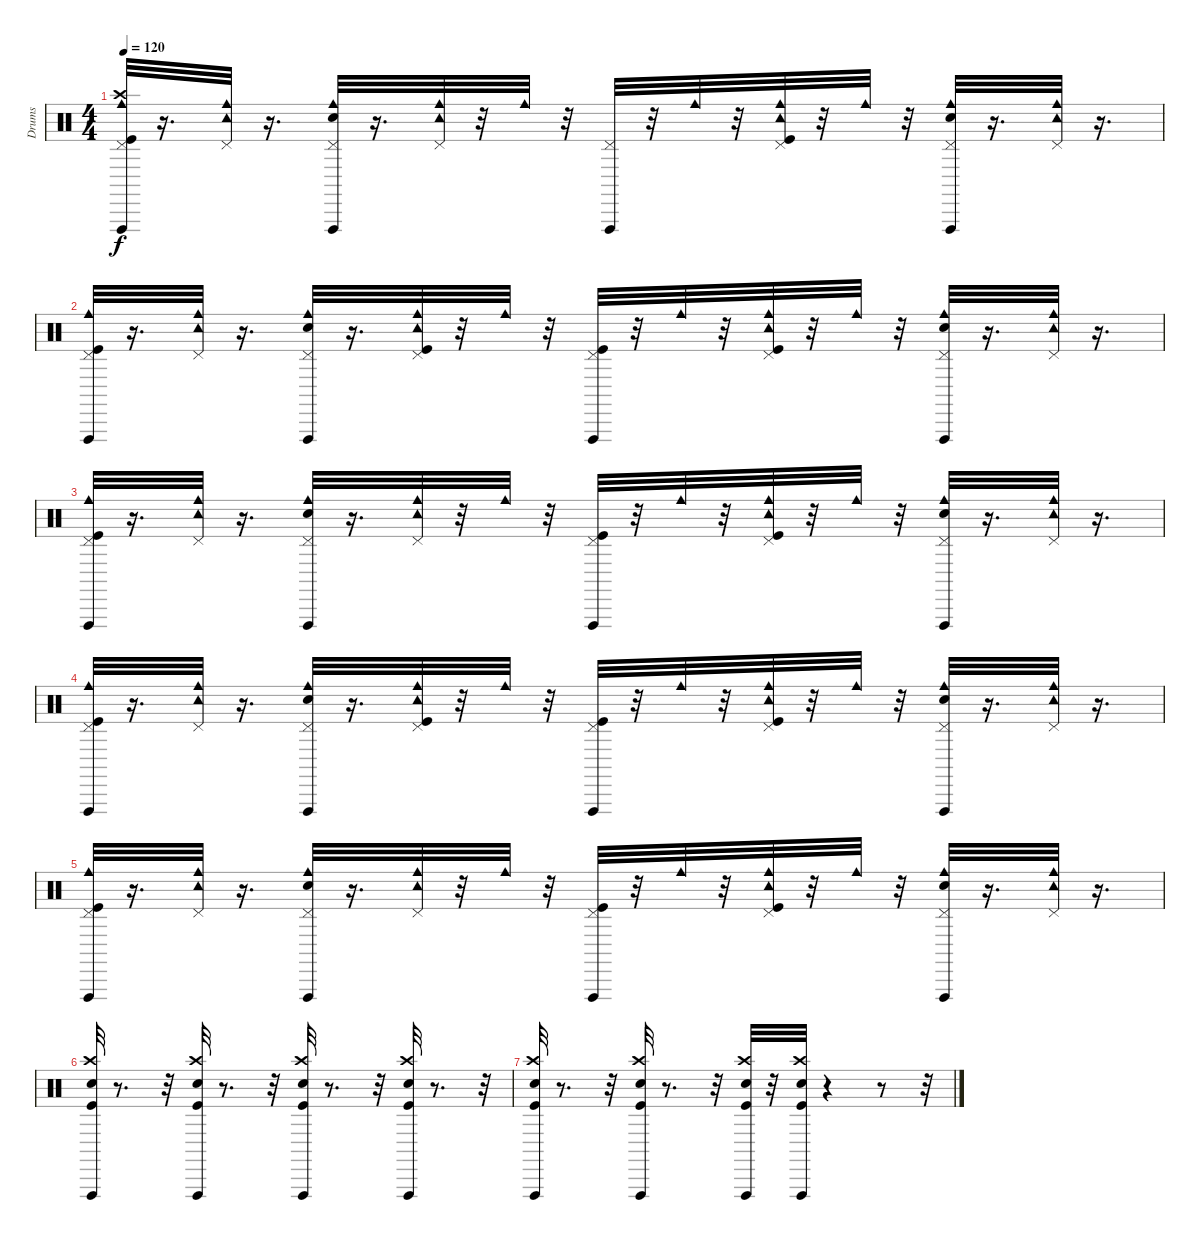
\track ("Drums" "Drums") {instrument percussion}
\staff {score}
\articulation defaults
\ts (4 4)
\tempo 120
\clef neutral
\ks c
("Vibraslap (hit)" "Cowbell medium (hit)" "Pedal Hi-Hat (hit)" "Crash high (hit)" "Kick (hit)").32{dy f} r.16{d} ("Pedal Hi-Hat (hit)" "Tambourine (hit)" "Cowbell medium (hit)").32 r.16{d} ("Snare (hit) 2" "Cowbell medium (hit)" "Vibraslap (hit)" "Pedal Hi-Hat (hit)").32 r.16{d} ("Cowbell medium (hit)" "Pedal Hi-Hat (hit)" "Tambourine (hit)").32 r.32 "Cowbell medium (hit)".32 r.32 ("Vibraslap (hit)" "Pedal Hi-Hat (hit)").32 r.32 "Cowbell medium (hit)".32 r.32 ("Tambourine (hit)" "Cowbell medium (hit)" "Pedal Hi-Hat (hit)" "Kick (hit)").32 r.32 "Cowbell medium (hit)".32 r.32 ("Cowbell medium (hit)" "Vibraslap (hit)" "Snare (hit) 2" "Pedal Hi-Hat (hit)").32 r.16{d} ("Pedal Hi-Hat (hit)" "Cowbell medium (hit)" "Tambourine (hit)").32 r.16{d} |
("Kick (hit)" "Cowbell medium (hit)" "Pedal Hi-Hat (hit)" "Vibraslap (hit)").32 r.16{d} ("Tambourine (hit)" "Pedal Hi-Hat (hit)" "Cowbell medium (hit)").32 r.16{d} ("Pedal Hi-Hat (hit)" "Snare (hit) 2" "Cowbell medium (hit)" "Vibraslap (hit)").32 r.16{d} ("Pedal Hi-Hat (hit)" "Tambourine (hit)" "Kick (hit)" "Cowbell medium (hit)").32 r.32 "Cowbell medium (hit)".32 r.32 ("Pedal Hi-Hat (hit)" "Kick (hit)" "Vibraslap (hit)").32 r.32 "Cowbell medium (hit)".32 r.32 ("Tambourine (hit)" "Pedal Hi-Hat (hit)" "Cowbell medium (hit)" "Kick (hit)").32 r.32 "Cowbell medium (hit)".32 r.32 ("Cowbell medium (hit)" "Pedal Hi-Hat (hit)" "Snare (hit) 2" "Vibraslap (hit)").32 r.16{d} ("Pedal Hi-Hat (hit)" "Tambourine (hit)" "Cowbell medium (hit)").32 r.16{d} |
("Cowbell medium (hit)" "Pedal Hi-Hat (hit)" "Kick (hit)" "Vibraslap (hit)").32 r.16{d} ("Pedal Hi-Hat (hit)" "Cowbell medium (hit)" "Tambourine (hit)").32 r.16{d} ("Pedal Hi-Hat (hit)" "Cowbell medium (hit)" "Snare (hit) 2" "Vibraslap (hit)").32 r.16{d} ("Cowbell medium (hit)" "Pedal Hi-Hat (hit)" "Tambourine (hit)").32 r.32 "Cowbell medium (hit)".32 r.32 ("Kick (hit)" "Pedal Hi-Hat (hit)" "Vibraslap (hit)").32 r.32 "Cowbell medium (hit)".32 r.32 ("Tambourine (hit)" "Pedal Hi-Hat (hit)" "Kick (hit)" "Cowbell medium (hit)").32 r.32 "Cowbell medium (hit)".32 r.32 ("Snare (hit) 2" "Pedal Hi-Hat (hit)" "Cowbell medium (hit)" "Vibraslap (hit)").32 r.16{d} ("Pedal Hi-Hat (hit)" "Tambourine (hit)" "Cowbell medium (hit)").32 r.16{d} |
("Kick (hit)" "Cowbell medium (hit)" "Pedal Hi-Hat (hit)" "Vibraslap (hit)").32 r.16{d} ("Tambourine (hit)" "Pedal Hi-Hat (hit)" "Cowbell medium (hit)").32 r.16{d} ("Pedal Hi-Hat (hit)" "Snare (hit) 2" "Cowbell medium (hit)" "Vibraslap (hit)").32 r.16{d} ("Pedal Hi-Hat (hit)" "Tambourine (hit)" "Kick (hit)" "Cowbell medium (hit)").32 r.32 "Cowbell medium (hit)".32 r.32 ("Pedal Hi-Hat (hit)" "Kick (hit)" "Vibraslap (hit)").32 r.32 "Cowbell medium (hit)".32 r.32 ("Tambourine (hit)" "Pedal Hi-Hat (hit)" "Cowbell medium (hit)" "Kick (hit)").32 r.32 "Cowbell medium (hit)".32 r.32 ("Cowbell medium (hit)" "Pedal Hi-Hat (hit)" "Snare (hit) 2" "Vibraslap (hit)").32 r.16{d} ("Pedal Hi-Hat (hit)" "Tambourine (hit)" "Cowbell medium (hit)").32 r.16{d} |
("Cowbell medium (hit)" "Pedal Hi-Hat (hit)" "Kick (hit)" "Vibraslap (hit)").32 r.16{d} ("Pedal Hi-Hat (hit)" "Cowbell medium (hit)" "Tambourine (hit)").32 r.16{d} ("Pedal Hi-Hat (hit)" "Cowbell medium (hit)" "Snare (hit) 2" "Vibraslap (hit)").32 r.16{d} ("Cowbell medium (hit)" "Pedal Hi-Hat (hit)" "Tambourine (hit)").32 r.32 "Cowbell medium (hit)".32 r.32 ("Kick (hit)" "Pedal Hi-Hat (hit)" "Vibraslap (hit)").32 r.32 "Cowbell medium (hit)".32 r.32 ("Tambourine (hit)" "Pedal Hi-Hat (hit)" "Kick (hit)" "Cowbell medium (hit)").32 r.32 "Cowbell medium (hit)".32 r.32 ("Snare (hit) 2" "Pedal Hi-Hat (hit)" "Cowbell medium (hit)" "Vibraslap (hit)").32 r.16{d} ("Pedal Hi-Hat (hit)" "Tambourine (hit)" "Cowbell medium (hit)").32 r.16{d} |
("Vibraslap (hit)" "Crash high (hit)" "Snare (hit) 2" "Kick (hit)").32 r.8{d} r.32 ("Vibraslap (hit)" "Crash high (hit)" "Snare (hit) 2" "Kick (hit)").32 r.8{d} r.32 ("Vibraslap (hit)" "Snare (hit) 2" "Kick (hit)" "Crash high (hit)").32 r.8{d} r.32 ("Vibraslap (hit)" "Crash high (hit)" "Snare (hit) 2" "Kick (hit)").32 r.8{d} r.32 |
("Vibraslap (hit)" "Crash high (hit)" "Snare (hit) 2" "Kick (hit)").32 r.8{d} r.32 ("Vibraslap (hit)" "Crash high (hit)" "Snare (hit) 2" "Kick (hit)").32 r.8{d} r.32 ("Vibraslap (hit)" "Crash high (hit)" "Snare (hit) 2" "Kick (hit)").32 r.32 ("Vibraslap (hit)" "Snare (hit) 2" "Kick (hit)" "Crash high (hit)").32 r.4 r.8 r.32
